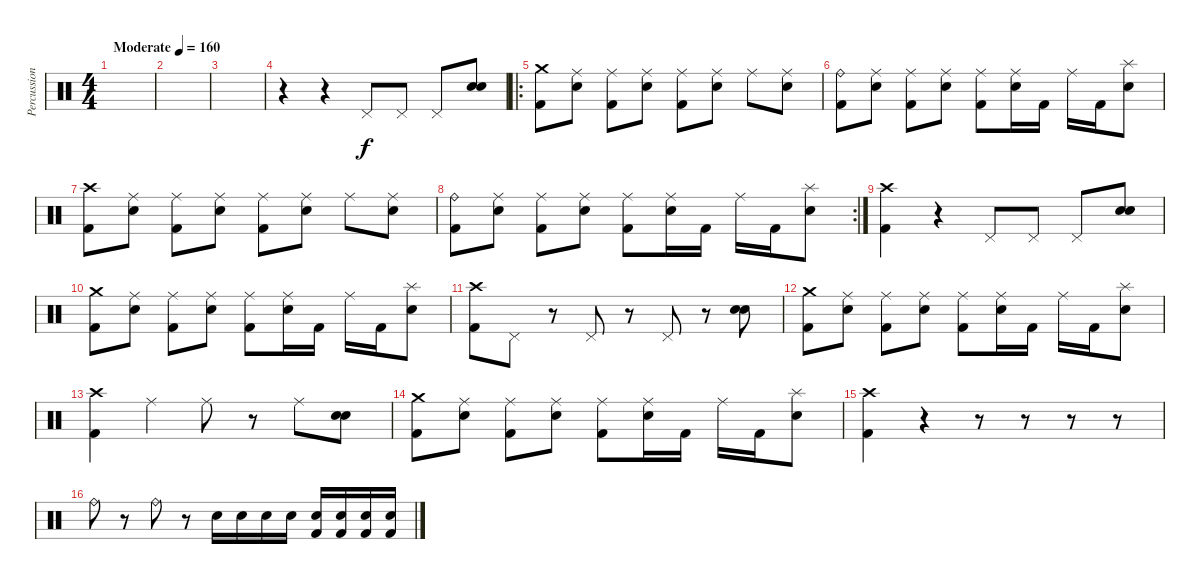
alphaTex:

\track ("Percussion" "Percussion") {instrument percussion}
\staff {score}
\articulation defaults
\ts (4 4)
\tempo (160 "Moderate")
\clef neutral
\ks c
|
|
|
r.4 r.4 "Pedal Hi-Hat (hit)".8 "Pedal Hi-Hat (hit)".8 "Pedal Hi-Hat (hit)".8 ("Electric Snare (hit)" "Electric Snare (hit)").8{bd 60} |
\ro
("Crash medium (hit)" "Kick (hit) 2").8 ("Ride (middle)" "Electric Snare (hit)").8 ("Ride (middle)" "Kick (hit) 2").8 ("Ride (middle)" "Electric Snare (hit)").8 ("Ride (middle)" "Kick (hit) 2").8 ("Ride (middle)" "Electric Snare (hit)").8 "Ride (middle)".8 ("Ride (middle)" "Electric Snare (hit)").8 |
("Ride (bell)" "Kick (hit) 2").8 ("Ride (middle)" "Electric Snare (hit)").8 ("Ride (middle)" "Kick (hit) 2").8 ("Ride (middle)" "Electric Snare (hit)").8 ("Ride (middle)" "Kick (hit) 2").8 ("Ride (middle)" "Electric Snare (hit)").16 "Kick (hit) 2".16 "Ride (middle)".16 "Kick (hit) 2".16 ("Splash (hit)" "Electric Snare (hit)").8 |
("Crash high (hit)" "Kick (hit) 2").8 ("Ride (middle)" "Electric Snare (hit)").8 ("Ride (middle)" "Kick (hit) 2").8 ("Ride (middle)" "Electric Snare (hit)").8 ("Ride (middle)" "Kick (hit) 2").8 ("Ride (middle)" "Electric Snare (hit)").8 "Ride (middle)".8 ("Ride (middle)" "Electric Snare (hit)").8 |
\rc 2
("Ride (bell)" "Kick (hit) 2").8 ("Ride (middle)" "Electric Snare (hit)").8 ("Ride (middle)" "Kick (hit) 2").8 ("Ride (middle)" "Electric Snare (hit)").8 ("Ride (middle)" "Kick (hit) 2").8 ("Ride (middle)" "Electric Snare (hit)").16 "Kick (hit) 2".16 "Ride (middle)".16 "Kick (hit) 2".16 ("Splash (hit)" "Electric Snare (hit)").8 |
("Crash high (hit)" "Kick (hit) 2").4 r.4 "Pedal Hi-Hat (hit)".8 "Pedal Hi-Hat (hit)".8 "Pedal Hi-Hat (hit)".8 ("Electric Snare (hit)" "Electric Snare (hit)").8{bd 60} |
("Crash medium (hit)" "Kick (hit) 2").8 ("Ride (middle)" "Electric Snare (hit)").8 ("Ride (middle)" "Kick (hit) 2").8 ("Ride (middle)" "Electric Snare (hit)").8 ("Ride (middle)" "Kick (hit) 2").8 ("Ride (middle)" "Electric Snare (hit)").16 "Kick (hit) 2".16 "Ride (middle)".16 "Kick (hit) 2".16 ("Splash (hit)" "Electric Snare (hit)").8 |
("Crash high (hit)" "Kick (hit) 2").8 "Pedal Hi-Hat (hit)".8 r.8 "Pedal Hi-Hat (hit)".8 r.8 "Pedal Hi-Hat (hit)".8 r.8 ("Electric Snare (hit)" "Electric Snare (hit)").8{bd 60} |
("Crash medium (hit)" "Kick (hit) 2").8 ("Ride (middle)" "Electric Snare (hit)").8 ("Ride (middle)" "Kick (hit) 2").8 ("Ride (middle)" "Electric Snare (hit)").8 ("Ride (middle)" "Kick (hit) 2").8 ("Ride (middle)" "Electric Snare (hit)").16 "Kick (hit) 2".16 "Ride (middle)".16 "Kick (hit) 2".16 ("Splash (hit)" "Electric Snare (hit)").8 |
("Crash high (hit)" "Kick (hit) 2").4 "Ride (middle)".4 "Ride (middle)".8 r.8 "Ride (middle)".8 ("Electric Snare (hit)" "Electric Snare (hit)").8{bd 60} |
("Crash medium (hit)" "Kick (hit) 2").8 ("Ride (middle)" "Electric Snare (hit)").8 ("Ride (middle)" "Kick (hit) 2").8 ("Ride (middle)" "Electric Snare (hit)").8 ("Ride (middle)" "Kick (hit) 2").8 ("Ride (middle)" "Electric Snare (hit)").16 "Kick (hit) 2".16 "Ride (middle)".16 "Kick (hit) 2".16 ("Splash (hit)" "Electric Snare (hit)").8 |
("Crash high (hit)" "Kick (hit) 2").4 r.4 r.8 r.8 r.8 r.8 |
"Ride (bell)".8 r.8 "Ride (bell)".8 r.8 "Electric Snare (hit)".16 "Electric Snare (hit)".16 "Electric Snare (hit)".16 "Electric Snare (hit)".16 ("Electric Snare (hit)" "Kick (hit) 2").16 ("Electric Snare (hit)" "Kick (hit) 2").16 ("Electric Snare (hit)" "Kick (hit) 2").16 ("Electric Snare (hit)" "Kick (hit) 2").16
